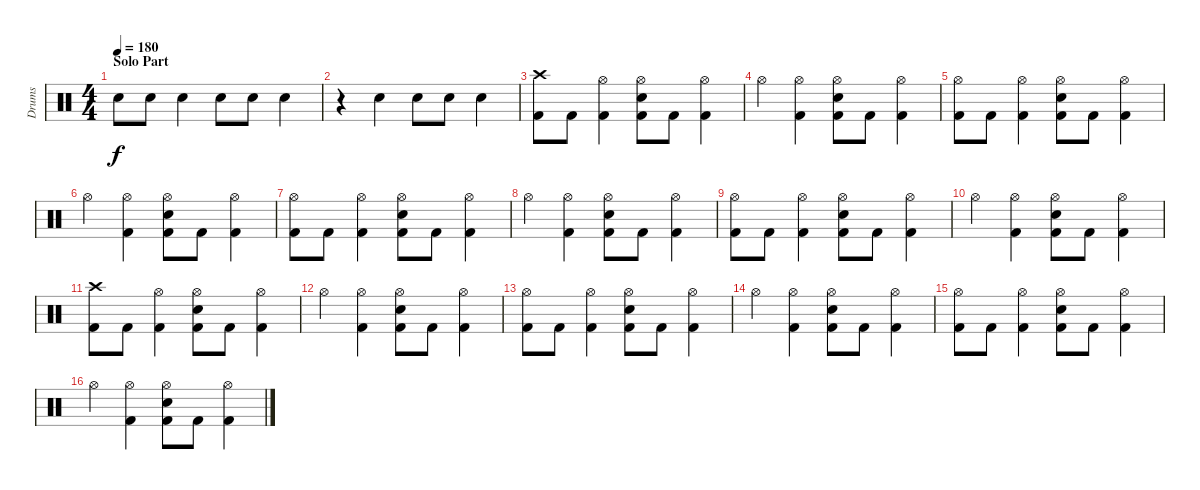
\track ("Drums" "Drums") {instrument percussion}
\staff {score}
\articulation defaults
\ts (4 4)
\section ("" "Solo Part")
\tempo 180
\clef neutral
\ks c "Snare (hit) 2".8{dy f} "Snare (hit) 2".8 "Snare (hit) 2".4 "Snare (hit) 2".8 "Snare (hit) 2".8 "Snare (hit) 2".4
|
r.4 "Snare (hit) 2".4 "Snare (hit) 2".8 "Snare (hit) 2".8 "Snare (hit) 2".4 |
("Crash high (hit)" "Kick (hit) 2").8 "Kick (hit) 2".8 ("Hi-Hat (open)" "Kick (hit) 2").4 ("Hi-Hat (open)" "Snare (hit) 2" "Kick (hit) 2").8 "Kick (hit) 2".8 ("Hi-Hat (open)" "Kick (hit) 2").4 |
"Hi-Hat (open)".4 ("Hi-Hat (open)" "Kick (hit) 2").4 ("Hi-Hat (open)" "Snare (hit) 2" "Kick (hit) 2").8 "Kick (hit) 2".8 ("Hi-Hat (open)" "Kick (hit) 2").4 |
("Hi-Hat (open)" "Kick (hit) 2").8 "Kick (hit) 2".8 ("Hi-Hat (open)" "Kick (hit) 2").4 ("Hi-Hat (open)" "Snare (hit) 2" "Kick (hit) 2").8 "Kick (hit) 2".8 ("Hi-Hat (open)" "Kick (hit) 2").4 |
"Hi-Hat (open)".4 ("Hi-Hat (open)" "Kick (hit) 2").4 ("Hi-Hat (open)" "Snare (hit) 2" "Kick (hit) 2").8 "Kick (hit) 2".8 ("Hi-Hat (open)" "Kick (hit) 2").4 |
("Hi-Hat (open)" "Kick (hit) 2").8 "Kick (hit) 2".8 ("Hi-Hat (open)" "Kick (hit) 2").4 ("Hi-Hat (open)" "Snare (hit) 2" "Kick (hit) 2").8 "Kick (hit) 2".8 ("Hi-Hat (open)" "Kick (hit) 2").4 |
"Hi-Hat (open)".4 ("Hi-Hat (open)" "Kick (hit) 2").4 ("Hi-Hat (open)" "Snare (hit) 2" "Kick (hit) 2").8 "Kick (hit) 2".8 ("Hi-Hat (open)" "Kick (hit) 2").4 |
("Hi-Hat (open)" "Kick (hit) 2").8 "Kick (hit) 2".8 ("Hi-Hat (open)" "Kick (hit) 2").4 ("Hi-Hat (open)" "Snare (hit) 2" "Kick (hit) 2").8 "Kick (hit) 2".8 ("Hi-Hat (open)" "Kick (hit) 2").4 |
"Hi-Hat (open)".4 ("Hi-Hat (open)" "Kick (hit) 2").4 ("Hi-Hat (open)" "Snare (hit) 2" "Kick (hit) 2").8 "Kick (hit) 2".8 ("Hi-Hat (open)" "Kick (hit) 2").4 |
("Crash high (hit)" "Kick (hit) 2").8 "Kick (hit) 2".8 ("Hi-Hat (open)" "Kick (hit) 2").4 ("Hi-Hat (open)" "Snare (hit) 2" "Kick (hit) 2").8 "Kick (hit) 2".8 ("Hi-Hat (open)" "Kick (hit) 2").4 |
"Hi-Hat (open)".4 ("Hi-Hat (open)" "Kick (hit) 2").4 ("Hi-Hat (open)" "Snare (hit) 2" "Kick (hit) 2").8 "Kick (hit) 2".8 ("Hi-Hat (open)" "Kick (hit) 2").4 |
("Hi-Hat (open)" "Kick (hit) 2").8 "Kick (hit) 2".8 ("Hi-Hat (open)" "Kick (hit) 2").4 ("Hi-Hat (open)" "Snare (hit) 2" "Kick (hit) 2").8 "Kick (hit) 2".8 ("Hi-Hat (open)" "Kick (hit) 2").4 |
"Hi-Hat (open)".4 ("Hi-Hat (open)" "Kick (hit) 2").4 ("Hi-Hat (open)" "Snare (hit) 2" "Kick (hit) 2").8 "Kick (hit) 2".8 ("Hi-Hat (open)" "Kick (hit) 2").4 |
("Hi-Hat (open)" "Kick (hit) 2").8 "Kick (hit) 2".8 ("Hi-Hat (open)" "Kick (hit) 2").4 ("Hi-Hat (open)" "Snare (hit) 2" "Kick (hit) 2").8 "Kick (hit) 2".8 ("Hi-Hat (open)" "Kick (hit) 2").4 |
"Hi-Hat (open)".4 ("Hi-Hat (open)" "Kick (hit) 2").4 ("Hi-Hat (open)" "Snare (hit) 2" "Kick (hit) 2").8 "Kick (hit) 2".8 ("Hi-Hat (open)" "Kick (hit) 2").4
